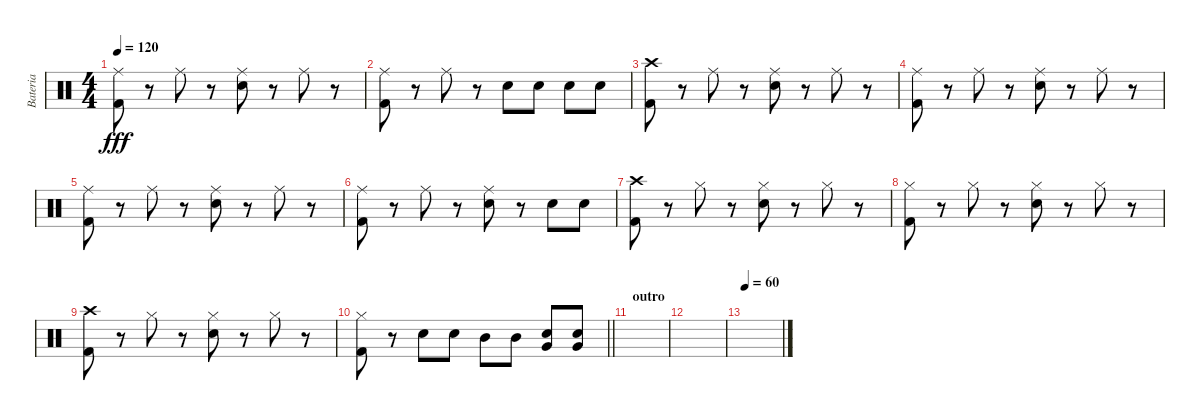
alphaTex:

\track ("Bateria" "Bateria") {instrument percussion}
\staff {score}
\articulation defaults
\ts (4 4)
\tempo 120
\clef neutral
\ks c
("Ride (middle)" "Kick (hit) 2").8{dy fff} r.8 "Ride (middle)".8 r.8 ("Ride (middle)" "Electric Snare (hit)").8 r.8 "Ride (middle)".8 r.8 |
("Ride (middle)" "Kick (hit) 2").8 r.8 "Ride (middle)".8 r.8 "Electric Snare (hit)".8 "Electric Snare (hit)".8 "Electric Snare (hit)".8 "Electric Snare (hit)".8 |
("Crash high (hit)" "Kick (hit) 2").8 r.8 "Ride (middle)".8 r.8 ("Ride (middle)" "Electric Snare (hit)").8 r.8 "Ride (middle)".8 r.8 |
("Ride (middle)" "Kick (hit) 2").8 r.8 "Ride (middle)".8 r.8 ("Ride (middle)" "Electric Snare (hit)").8 r.8 "Ride (middle)".8 r.8 |
("Ride (middle)" "Kick (hit) 2").8 r.8 "Ride (middle)".8 r.8 ("Ride (middle)" "Electric Snare (hit)").8 r.8 "Ride (middle)".8 r.8 |
("Ride (middle)" "Kick (hit) 2").8 r.8 "Ride (middle)".8 r.8 ("Ride (middle)" "Electric Snare (hit)").8 r.8 "Electric Snare (hit)".8 "Electric Snare (hit)".8 |
("Crash high (hit)" "Kick (hit) 2").8 r.8 "Hi-Hat (closed)".8 r.8 ("Hi-Hat (closed)" "Electric Snare (hit)").8 r.8 "Hi-Hat (closed)".8 r.8 |
("Hi-Hat (closed)" "Kick (hit) 2").8 r.8 "Hi-Hat (closed)".8 r.8 ("Hi-Hat (closed)" "Electric Snare (hit)").8 r.8 "Hi-Hat (closed)".8 r.8 |
("Crash high (hit)" "Kick (hit) 2").8 r.8 "Hi-Hat (closed)".8 r.8 ("Hi-Hat (closed)" "Electric Snare (hit)").8 r.8 "Hi-Hat (closed)".8 r.8 |
\barLineRight lightlight
("Hi-Hat (closed)" "Kick (hit) 2").8 r.8 "Electric Snare (hit)".8 "Electric Snare (hit)".8 "Mid Tom (hit)".8 "Mid Tom (hit)".8 ("Electric Snare (hit)" "Very Low Tom (hit)").8 ("Electric Snare (hit)" "Very Low Tom (hit)").8 |
\section ("" "outro")
|
|
\tempo 60
